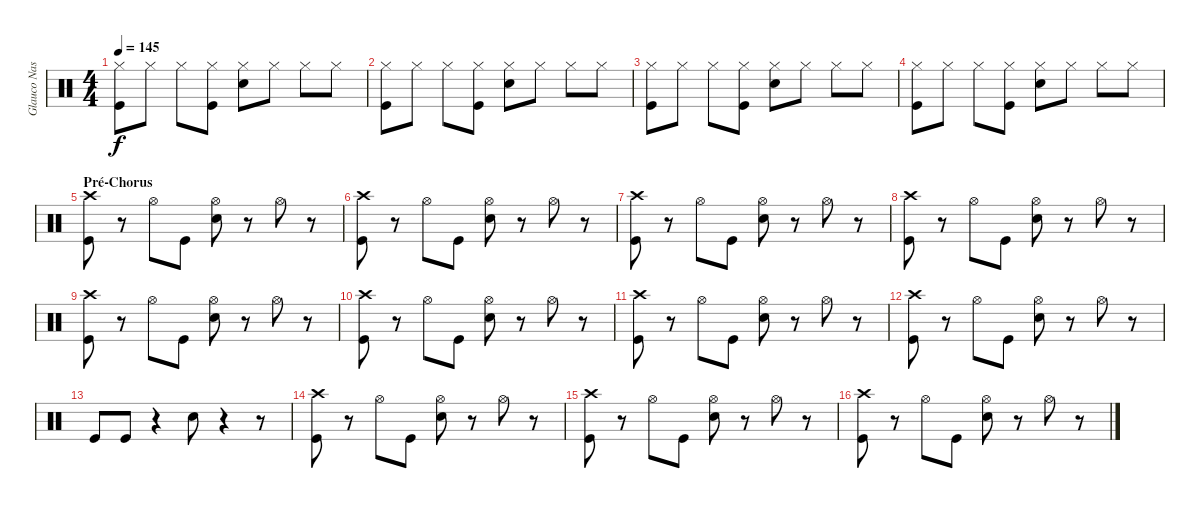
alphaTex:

\track ("Glauco Nastácia" "Glauco Nas") {instrument percussion}
\staff {score}
\articulation defaults
\ts (4 4)
\tempo 145
\clef neutral
\ks c
("Hi-Hat (closed)" "Kick (hit)").8{dy f} "Hi-Hat (closed)".8 "Hi-Hat (closed)".8 ("Hi-Hat (closed)" "Kick (hit)").8 ("Hi-Hat (closed)" "Electric Snare (hit)").8 "Hi-Hat (closed)".8 "Hi-Hat (closed)".8 "Hi-Hat (closed)".8 |
("Hi-Hat (closed)" "Kick (hit)").8 "Hi-Hat (closed)".8 "Hi-Hat (closed)".8 ("Hi-Hat (closed)" "Kick (hit)").8 ("Hi-Hat (closed)" "Electric Snare (hit)").8 "Hi-Hat (closed)".8 "Hi-Hat (closed)".8 "Hi-Hat (closed)".8 |
("Hi-Hat (closed)" "Kick (hit)").8 "Hi-Hat (closed)".8 "Hi-Hat (closed)".8 ("Hi-Hat (closed)" "Kick (hit)").8 ("Hi-Hat (closed)" "Electric Snare (hit)").8 "Hi-Hat (closed)".8 "Hi-Hat (closed)".8 "Hi-Hat (closed)".8 |
("Hi-Hat (closed)" "Kick (hit)").8 "Hi-Hat (closed)".8 "Hi-Hat (closed)".8 ("Hi-Hat (closed)" "Kick (hit)").8 ("Hi-Hat (closed)" "Electric Snare (hit)").8 "Hi-Hat (closed)".8 "Hi-Hat (closed)".8 "Hi-Hat (closed)".8 |
\section ("" "Pré-Chorus")
("Crash high (hit)" "Kick (hit)").8 r.8 "Hi-Hat (open)".8 "Kick (hit)".8 ("Hi-Hat (open)" "Electric Snare (hit)").8 r.8 "Hi-Hat (open)".8 r.8 |
("Crash high (hit)" "Kick (hit)").8 r.8 "Hi-Hat (open)".8 "Kick (hit)".8 ("Hi-Hat (open)" "Electric Snare (hit)").8 r.8 "Hi-Hat (open)".8 r.8 |
("Crash high (hit)" "Kick (hit)").8 r.8 "Hi-Hat (open)".8 "Kick (hit)".8 ("Hi-Hat (open)" "Electric Snare (hit)").8 r.8 "Hi-Hat (open)".8 r.8 |
("Crash high (hit)" "Kick (hit)").8 r.8 "Hi-Hat (open)".8 "Kick (hit)".8 ("Hi-Hat (open)" "Electric Snare (hit)").8 r.8 "Hi-Hat (open)".8 r.8 |
("Crash high (hit)" "Kick (hit)").8 r.8 "Hi-Hat (open)".8 "Kick (hit)".8 ("Hi-Hat (open)" "Electric Snare (hit)").8 r.8 "Hi-Hat (open)".8 r.8 |
("Crash high (hit)" "Kick (hit)").8 r.8 "Hi-Hat (open)".8 "Kick (hit)".8 ("Hi-Hat (open)" "Electric Snare (hit)").8 r.8 "Hi-Hat (open)".8 r.8 |
("Crash high (hit)" "Kick (hit)").8 r.8 "Hi-Hat (open)".8 "Kick (hit)".8 ("Hi-Hat (open)" "Electric Snare (hit)").8 r.8 "Hi-Hat (open)".8 r.8 |
("Crash high (hit)" "Kick (hit)").8 r.8 "Hi-Hat (open)".8 "Kick (hit)".8 ("Hi-Hat (open)" "Electric Snare (hit)").8 r.8 "Hi-Hat (open)".8 r.8 |
"Kick (hit)".8 "Kick (hit)".8 r.4 "Electric Snare (hit)".8 r.4 r.8 |
("Crash high (hit)" "Kick (hit)").8 r.8 "Hi-Hat (open)".8 "Kick (hit)".8 ("Hi-Hat (open)" "Electric Snare (hit)").8 r.8 "Hi-Hat (open)".8 r.8 |
("Crash high (hit)" "Kick (hit)").8 r.8 "Hi-Hat (open)".8 "Kick (hit)".8 ("Hi-Hat (open)" "Electric Snare (hit)").8 r.8 "Hi-Hat (open)".8 r.8 |
("Crash high (hit)" "Kick (hit)").8 r.8 "Hi-Hat (open)".8 "Kick (hit)".8 ("Hi-Hat (open)" "Electric Snare (hit)").8 r.8 "Hi-Hat (open)".8 r.8
